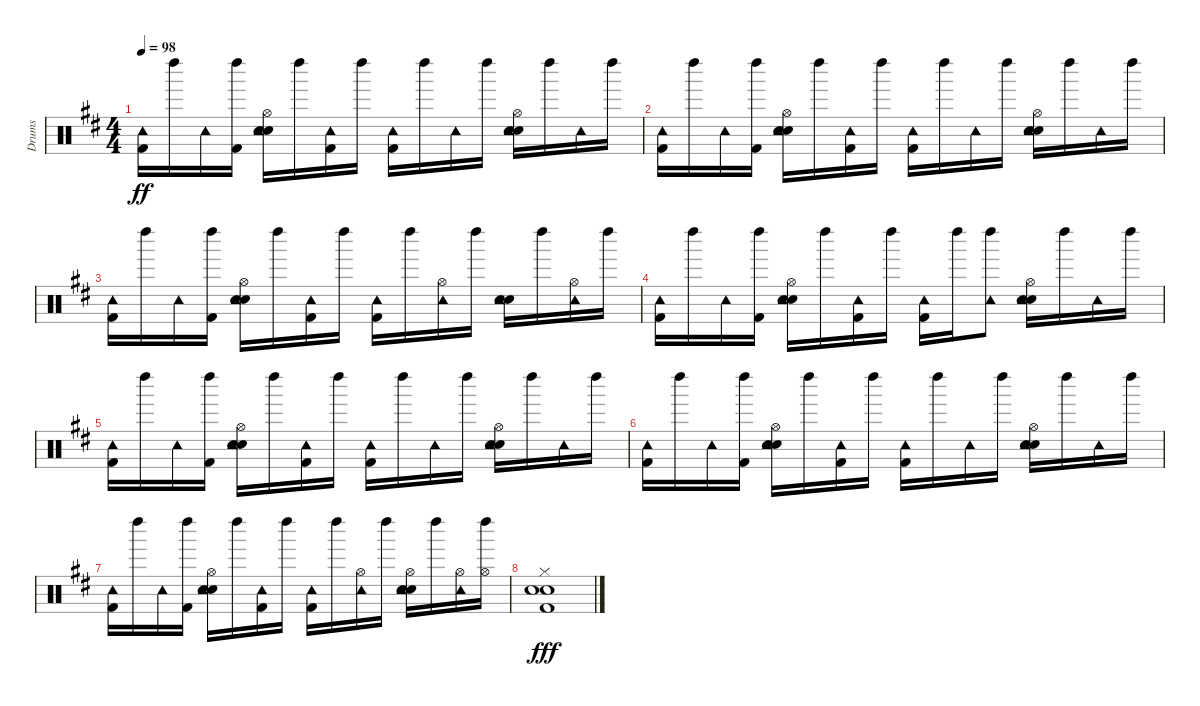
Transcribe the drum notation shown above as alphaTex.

\track ("Drums" "Drums") {instrument percussion}
\staff {score}
\articulation defaults
\ts (4 4)
\tempo 98
\clef neutral
\ks d
("Kick (hit) 2" "Tambourine (hit)").16{dy ff} "Left Maraca (hit)".16 "Tambourine (hit)".16 ("Kick (hit) 2" "Left Maraca (hit)").16 ("Snare (hit) 2" "Electric Snare (hit)" "Hi-Hat (open)" "Tambourine (hit)").16 "Left Maraca (hit)".16 ("Kick (hit) 2" "Tambourine (hit)").16 "Left Maraca (hit)".16 ("Kick (hit) 2" "Tambourine (hit)").16 "Left Maraca (hit)".16 "Tambourine (hit)".16 "Left Maraca (hit)".16 ("Snare (hit) 2" "Electric Snare (hit)" "Hi-Hat (open)" "Tambourine (hit)").16 "Left Maraca (hit)".16 "Tambourine (hit)".16 "Left Maraca (hit)".16 |
("Kick (hit) 2" "Tambourine (hit)").16 "Left Maraca (hit)".16 "Tambourine (hit)".16 ("Kick (hit) 2" "Left Maraca (hit)").16 ("Snare (hit) 2" "Electric Snare (hit)" "Hi-Hat (open)" "Tambourine (hit)").16 "Left Maraca (hit)".16 ("Kick (hit) 2" "Tambourine (hit)").16 "Left Maraca (hit)".16 ("Kick (hit) 2" "Tambourine (hit)").16 "Left Maraca (hit)".16 "Tambourine (hit)".16 "Left Maraca (hit)".16 ("Snare (hit) 2" "Electric Snare (hit)" "Hi-Hat (open)" "Tambourine (hit)").16 "Left Maraca (hit)".16 "Tambourine (hit)".16 "Left Maraca (hit)".16 |
("Kick (hit) 2" "Tambourine (hit)").16 "Left Maraca (hit)".16 "Tambourine (hit)".16 ("Kick (hit) 2" "Left Maraca (hit)").16 ("Snare (hit) 2" "Electric Snare (hit)" "Hi-Hat (open)" "Tambourine (hit)").16 "Left Maraca (hit)".16 ("Kick (hit) 2" "Tambourine (hit)").16 "Left Maraca (hit)".16 ("Kick (hit) 2" "Tambourine (hit)").16 "Left Maraca (hit)".16 ("Hi-Hat (open)" "Tambourine (hit)").16 "Left Maraca (hit)".16 ("Snare (hit) 2" "Electric Snare (hit)" "Tambourine (hit)").16 "Left Maraca (hit)".16 ("Hi-Hat (open)" "Tambourine (hit)").16 "Left Maraca (hit)".16 |
("Kick (hit) 2" "Tambourine (hit)").16 "Left Maraca (hit)".16 "Tambourine (hit)".16 ("Kick (hit) 2" "Left Maraca (hit)").16 ("Snare (hit) 2" "Electric Snare (hit)" "Hi-Hat (open)" "Tambourine (hit)").16 "Left Maraca (hit)".16 ("Kick (hit) 2" "Tambourine (hit)").16 "Left Maraca (hit)".16 ("Kick (hit) 2" "Tambourine (hit)").16 "Left Maraca (hit)".16 ("Tambourine (hit)" "Left Maraca (hit)").8 ("Snare (hit) 2" "Electric Snare (hit)" "Hi-Hat (open)" "Tambourine (hit)").16 "Left Maraca (hit)".16 "Tambourine (hit)".16 "Left Maraca (hit)".16 |
("Kick (hit) 2" "Tambourine (hit)").16 "Left Maraca (hit)".16 "Tambourine (hit)".16 ("Kick (hit) 2" "Left Maraca (hit)").16 ("Snare (hit) 2" "Electric Snare (hit)" "Hi-Hat (open)" "Tambourine (hit)").16 "Left Maraca (hit)".16 ("Kick (hit) 2" "Tambourine (hit)").16 "Left Maraca (hit)".16 ("Kick (hit) 2" "Tambourine (hit)").16 "Left Maraca (hit)".16 "Tambourine (hit)".16 "Left Maraca (hit)".16 ("Snare (hit) 2" "Electric Snare (hit)" "Hi-Hat (open)" "Tambourine (hit)").16 "Left Maraca (hit)".16 "Tambourine (hit)".16 "Left Maraca (hit)".16 |
("Kick (hit) 2" "Tambourine (hit)").16 "Left Maraca (hit)".16 "Tambourine (hit)".16 ("Kick (hit) 2" "Left Maraca (hit)").16 ("Snare (hit) 2" "Electric Snare (hit)" "Hi-Hat (open)" "Tambourine (hit)").16 "Left Maraca (hit)".16 ("Kick (hit) 2" "Tambourine (hit)").16 "Left Maraca (hit)".16 ("Kick (hit) 2" "Tambourine (hit)").16 "Left Maraca (hit)".16 "Tambourine (hit)".16 "Left Maraca (hit)".16 ("Snare (hit) 2" "Electric Snare (hit)" "Hi-Hat (open)" "Tambourine (hit)").16 "Left Maraca (hit)".16 "Tambourine (hit)".16 "Left Maraca (hit)".16 |
("Kick (hit) 2" "Tambourine (hit)").16 "Left Maraca (hit)".16 "Tambourine (hit)".16 ("Kick (hit) 2" "Left Maraca (hit)").16 ("Snare (hit) 2" "Electric Snare (hit)" "Hi-Hat (open)" "Tambourine (hit)").16 "Left Maraca (hit)".16 ("Kick (hit) 2" "Tambourine (hit)").16 "Left Maraca (hit)".16 ("Kick (hit) 2" "Tambourine (hit)").16 "Left Maraca (hit)".16 ("Hi-Hat (open)" "Tambourine (hit)").16 "Left Maraca (hit)".16 ("Snare (hit) 2" "Electric Snare (hit)" "Hi-Hat (open)" "Tambourine (hit)").16 "Left Maraca (hit)".16 ("Hi-Hat (open)" "Tambourine (hit)").16 ("Hi-Hat (open)" "Left Maraca (hit)").16 |
("Kick (hit) 2" "Snare (hit) 2" "Electric Snare (hit)" "Hi-Hat (closed)").1{dy fff}
